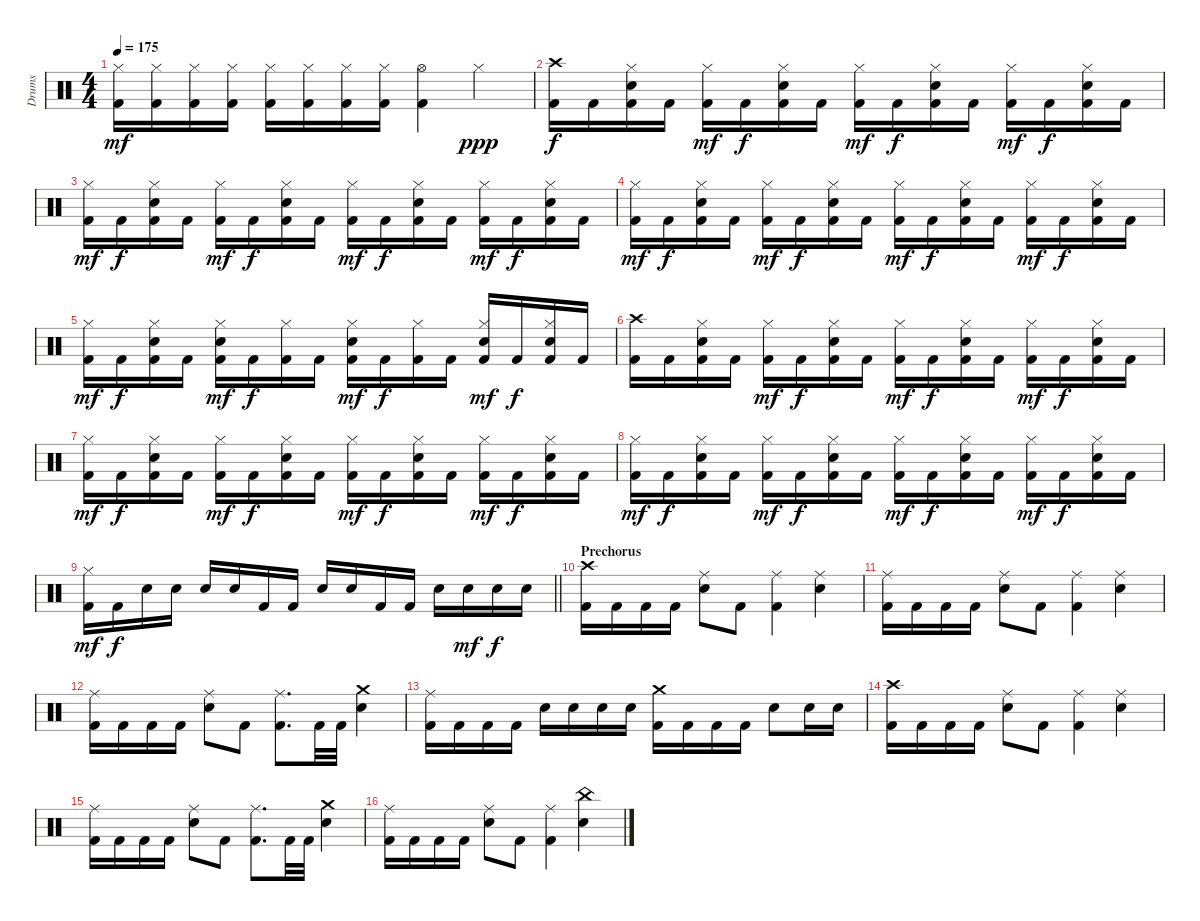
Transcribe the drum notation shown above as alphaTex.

\track ("Drums" "Drums") {instrument percussion}
\staff {score}
\articulation defaults
\ts (4 4)
\tempo 175
\clef neutral
\ks c
("Kick (hit) 2" "Hi-Hat (closed)").16{dy mf} ("Kick (hit) 2" "Hi-Hat (closed)").16 ("Kick (hit) 2" "Hi-Hat (closed)").16 ("Kick (hit) 2" "Hi-Hat (closed)").16 ("Kick (hit) 2" "Hi-Hat (closed)").16 ("Kick (hit) 2" "Hi-Hat (closed)").16 ("Kick (hit) 2" "Hi-Hat (closed)").16 ("Kick (hit) 2" "Hi-Hat (closed)").16 ("Kick (hit) 2" "Hi-Hat (open)").4 "Hi-Hat (closed)".4{dy ppp} |
("Kick (hit) 2" "Crash high (hit)").16{dy f} "Kick (hit) 2".16 ("Kick (hit) 2" "Hi-Hat (closed)" "Electric Snare (hit)").16 "Kick (hit) 2".16 ("Kick (hit) 2" "Hi-Hat (closed)").16{dy mf} "Kick (hit) 2".16{dy f} ("Kick (hit) 2" "Hi-Hat (closed)" "Electric Snare (hit)").16 "Kick (hit) 2".16 ("Kick (hit) 2" "Hi-Hat (closed)").16{dy mf} "Kick (hit) 2".16{dy f} ("Kick (hit) 2" "Hi-Hat (closed)" "Electric Snare (hit)").16 "Kick (hit) 2".16 ("Kick (hit) 2" "Hi-Hat (closed)").16{dy mf} "Kick (hit) 2".16{dy f} ("Kick (hit) 2" "Hi-Hat (closed)" "Electric Snare (hit)").16 "Kick (hit) 2".16 |
("Kick (hit) 2" "Hi-Hat (closed)").16{dy mf} "Kick (hit) 2".16{dy f} ("Kick (hit) 2" "Hi-Hat (closed)" "Electric Snare (hit)").16 "Kick (hit) 2".16 ("Kick (hit) 2" "Hi-Hat (closed)").16{dy mf} "Kick (hit) 2".16{dy f} ("Kick (hit) 2" "Hi-Hat (closed)" "Electric Snare (hit)").16 "Kick (hit) 2".16 ("Kick (hit) 2" "Hi-Hat (closed)").16{dy mf} "Kick (hit) 2".16{dy f} ("Kick (hit) 2" "Hi-Hat (closed)" "Electric Snare (hit)").16 "Kick (hit) 2".16 ("Kick (hit) 2" "Hi-Hat (closed)").16{dy mf} "Kick (hit) 2".16{dy f} ("Kick (hit) 2" "Hi-Hat (closed)" "Electric Snare (hit)").16 "Kick (hit) 2".16 |
("Kick (hit) 2" "Hi-Hat (closed)").16{dy mf} "Kick (hit) 2".16{dy f} ("Kick (hit) 2" "Hi-Hat (closed)" "Electric Snare (hit)").16 "Kick (hit) 2".16 ("Kick (hit) 2" "Hi-Hat (closed)").16{dy mf} "Kick (hit) 2".16{dy f} ("Kick (hit) 2" "Hi-Hat (closed)" "Electric Snare (hit)").16 "Kick (hit) 2".16 ("Kick (hit) 2" "Hi-Hat (closed)").16{dy mf} "Kick (hit) 2".16{dy f} ("Kick (hit) 2" "Hi-Hat (closed)" "Electric Snare (hit)").16 "Kick (hit) 2".16 ("Kick (hit) 2" "Hi-Hat (closed)").16{dy mf} "Kick (hit) 2".16{dy f} ("Kick (hit) 2" "Hi-Hat (closed)" "Electric Snare (hit)").16 "Kick (hit) 2".16 |
("Kick (hit) 2" "Hi-Hat (closed)").16{dy mf} "Kick (hit) 2".16{dy f} ("Kick (hit) 2" "Hi-Hat (closed)" "Electric Snare (hit)").16 "Kick (hit) 2".16 ("Kick (hit) 2" "Hi-Hat (closed)" "Electric Snare (hit)").16{dy mf} "Kick (hit) 2".16{dy f} ("Kick (hit) 2" "Hi-Hat (closed)").16 "Kick (hit) 2".16 ("Kick (hit) 2" "Hi-Hat (closed)" "Electric Snare (hit)").16{dy mf} "Kick (hit) 2".16{dy f} ("Kick (hit) 2" "Hi-Hat (closed)").16 "Kick (hit) 2".16 ("Kick (hit) 2" "Hi-Hat (closed)" "Electric Snare (hit)").16{dy mf} "Kick (hit) 2".16{dy f} ("Kick (hit) 2" "Hi-Hat (closed)" "Electric Snare (hit)").16 "Kick (hit) 2".16 |
("Kick (hit) 2" "Crash high (hit)").16 "Kick (hit) 2".16 ("Kick (hit) 2" "Hi-Hat (closed)" "Electric Snare (hit)").16 "Kick (hit) 2".16 ("Kick (hit) 2" "Hi-Hat (closed)").16{dy mf} "Kick (hit) 2".16{dy f} ("Kick (hit) 2" "Hi-Hat (closed)" "Electric Snare (hit)").16 "Kick (hit) 2".16 ("Kick (hit) 2" "Hi-Hat (closed)").16{dy mf} "Kick (hit) 2".16{dy f} ("Kick (hit) 2" "Hi-Hat (closed)" "Electric Snare (hit)").16 "Kick (hit) 2".16 ("Kick (hit) 2" "Hi-Hat (closed)").16{dy mf} "Kick (hit) 2".16{dy f} ("Kick (hit) 2" "Hi-Hat (closed)" "Electric Snare (hit)").16 "Kick (hit) 2".16 |
("Kick (hit) 2" "Hi-Hat (closed)").16{dy mf} "Kick (hit) 2".16{dy f} ("Kick (hit) 2" "Hi-Hat (closed)" "Electric Snare (hit)").16 "Kick (hit) 2".16 ("Kick (hit) 2" "Hi-Hat (closed)").16{dy mf} "Kick (hit) 2".16{dy f} ("Kick (hit) 2" "Hi-Hat (closed)" "Electric Snare (hit)").16 "Kick (hit) 2".16 ("Kick (hit) 2" "Hi-Hat (closed)").16{dy mf} "Kick (hit) 2".16{dy f} ("Kick (hit) 2" "Hi-Hat (closed)" "Electric Snare (hit)").16 "Kick (hit) 2".16 ("Kick (hit) 2" "Hi-Hat (closed)").16{dy mf} "Kick (hit) 2".16{dy f} ("Kick (hit) 2" "Hi-Hat (closed)" "Electric Snare (hit)").16 "Kick (hit) 2".16 |
("Kick (hit) 2" "Hi-Hat (closed)").16{dy mf} "Kick (hit) 2".16{dy f} ("Kick (hit) 2" "Hi-Hat (closed)" "Electric Snare (hit)").16 "Kick (hit) 2".16 ("Kick (hit) 2" "Hi-Hat (closed)").16{dy mf} "Kick (hit) 2".16{dy f} ("Kick (hit) 2" "Hi-Hat (closed)" "Electric Snare (hit)").16 "Kick (hit) 2".16 ("Kick (hit) 2" "Hi-Hat (closed)").16{dy mf} "Kick (hit) 2".16{dy f} ("Kick (hit) 2" "Hi-Hat (closed)" "Electric Snare (hit)").16 "Kick (hit) 2".16 ("Kick (hit) 2" "Hi-Hat (closed)").16{dy mf} "Kick (hit) 2".16{dy f} ("Kick (hit) 2" "Hi-Hat (closed)" "Electric Snare (hit)").16 "Kick (hit) 2".16 |
\barLineRight lightlight
("Kick (hit) 2" "Hi-Hat (closed)").16{dy mf} "Kick (hit) 2".16{dy f} "Electric Snare (hit)".16 "Electric Snare (hit)".16 "Electric Snare (hit)".16 "Electric Snare (hit)".16 "Kick (hit) 2".16 "Kick (hit) 2".16 "Electric Snare (hit)".16 "Electric Snare (hit)".16 "Kick (hit) 2".16 "Kick (hit) 2".16 "Electric Snare (hit)".16 "Electric Snare (hit)".16{dy mf} "Electric Snare (hit)".16{dy f} "Electric Snare (hit)".16 |
\section ("" "Prechorus")
("Kick (hit) 2" "Crash high (hit)").16 "Kick (hit) 2".16 "Kick (hit) 2".16 "Kick (hit) 2".16 ("Ride (middle)" "Electric Snare (hit)").8 "Kick (hit) 2".8 ("Kick (hit) 2" "Ride (middle)").4 ("Ride (middle)" "Electric Snare (hit)").4 |
("Kick (hit) 2" "Ride (middle)").16 "Kick (hit) 2".16 "Kick (hit) 2".16 "Kick (hit) 2".16 ("Ride (middle)" "Electric Snare (hit)").8 "Kick (hit) 2".8 ("Kick (hit) 2" "Ride (middle)").4 ("Ride (middle)" "Electric Snare (hit)").4 |
("Kick (hit) 2" "Ride (middle)").16 "Kick (hit) 2".16 "Kick (hit) 2".16 "Kick (hit) 2".16 ("Ride (middle)" "Electric Snare (hit)").8 "Kick (hit) 2".8 ("Kick (hit) 2" "Ride (middle)").8{d} "Kick (hit) 2".32 "Kick (hit) 2".32 ("Crash medium (hit)" "Electric Snare (hit)").4 |
("Kick (hit) 2" "Ride (middle)").16 "Kick (hit) 2".16 "Kick (hit) 2".16 "Kick (hit) 2".16 "Electric Snare (hit)".16 "Electric Snare (hit)".16 "Electric Snare (hit)".16 "Electric Snare (hit)".16 ("Kick (hit) 2" "Crash medium (hit)").16 "Kick (hit) 2".16 "Kick (hit) 2".16 "Kick (hit) 2".16 "Electric Snare (hit)".8 "Electric Snare (hit)".16 "Electric Snare (hit)".16 |
("Kick (hit) 2" "Crash high (hit)").16 "Kick (hit) 2".16 "Kick (hit) 2".16 "Kick (hit) 2".16 ("Ride (middle)" "Electric Snare (hit)").8 "Kick (hit) 2".8 ("Kick (hit) 2" "Ride (middle)").4 ("Ride (middle)" "Electric Snare (hit)").4 |
("Kick (hit) 2" "Ride (middle)").16 "Kick (hit) 2".16 "Kick (hit) 2".16 "Kick (hit) 2".16 ("Ride (middle)" "Electric Snare (hit)").8 "Kick (hit) 2".8 ("Kick (hit) 2" "Ride (middle)").8{d} "Kick (hit) 2".32 "Kick (hit) 2".32 ("Crash medium (hit)" "Electric Snare (hit)").4 |
("Kick (hit) 2" "Ride (middle)").16 "Kick (hit) 2".16 "Kick (hit) 2".16 "Kick (hit) 2".16 ("Ride (middle)" "Electric Snare (hit)").8 "Kick (hit) 2".8 ("Kick (hit) 2" "Ride (middle)").4 ("China (hit)" "Electric Snare (hit)").4
